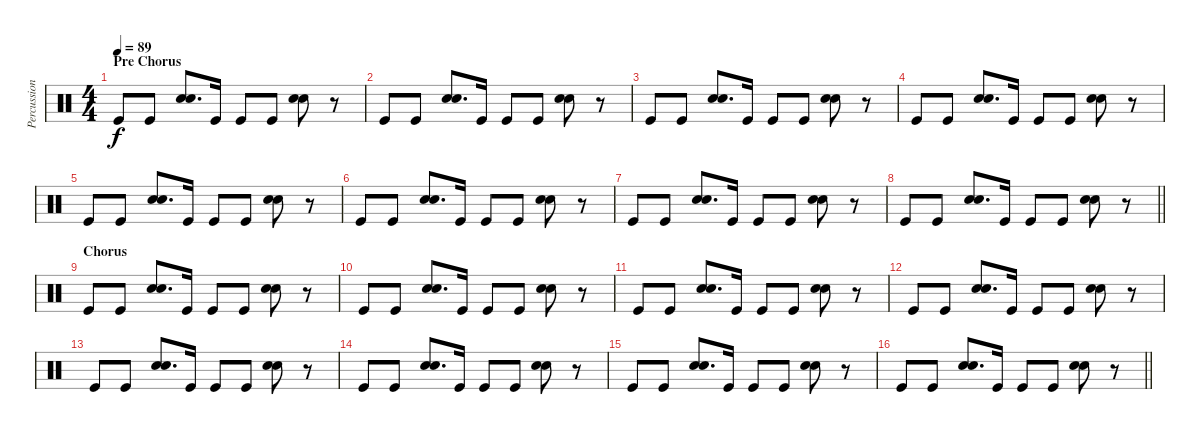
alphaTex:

\track ("Percussion" "Percussion") {instrument percussion}
\staff {score}
\articulation defaults
\ts (4 4)
\section ("" "Pre Chorus")
\tempo 89
\clef neutral
\ks c "Kick (hit)".8{dy f} "Kick (hit)".8
("Electric Snare (hit)" "Hand Clap (hit)").8{d} "Kick (hit)".16 "Kick (hit)".8 "Kick (hit)".8 ("Electric Snare (hit)" "Hand Clap (hit)").8 r.8 |
"Kick (hit)".8 "Kick (hit)".8 ("Electric Snare (hit)" "Hand Clap (hit)").8{d} "Kick (hit)".16 "Kick (hit)".8 "Kick (hit)".8 ("Electric Snare (hit)" "Hand Clap (hit)").8 r.8 |
"Kick (hit)".8 "Kick (hit)".8 ("Electric Snare (hit)" "Hand Clap (hit)").8{d} "Kick (hit)".16 "Kick (hit)".8 "Kick (hit)".8 ("Electric Snare (hit)" "Hand Clap (hit)").8 r.8 |
"Kick (hit)".8 "Kick (hit)".8 ("Electric Snare (hit)" "Hand Clap (hit)").8{d} "Kick (hit)".16 "Kick (hit)".8 "Kick (hit)".8 ("Electric Snare (hit)" "Hand Clap (hit)").8 r.8 |
"Kick (hit)".8 "Kick (hit)".8 ("Electric Snare (hit)" "Hand Clap (hit)").8{d} "Kick (hit)".16 "Kick (hit)".8 "Kick (hit)".8 ("Electric Snare (hit)" "Hand Clap (hit)").8 r.8 |
"Kick (hit)".8 "Kick (hit)".8 ("Electric Snare (hit)" "Hand Clap (hit)").8{d} "Kick (hit)".16 "Kick (hit)".8 "Kick (hit)".8 ("Electric Snare (hit)" "Hand Clap (hit)").8 r.8 |
"Kick (hit)".8 "Kick (hit)".8 ("Electric Snare (hit)" "Hand Clap (hit)").8{d} "Kick (hit)".16 "Kick (hit)".8 "Kick (hit)".8 ("Electric Snare (hit)" "Hand Clap (hit)").8 r.8 |
\barLineRight lightlight "Kick (hit)".8 "Kick (hit)".8
("Electric Snare (hit)" "Hand Clap (hit)").8{d} "Kick (hit)".16 "Kick (hit)".8 "Kick (hit)".8 ("Electric Snare (hit)" "Hand Clap (hit)").8 r.8 |
\section ("" "Chorus")
"Kick (hit)".8 "Kick (hit)".8 ("Electric Snare (hit)" "Hand Clap (hit)").8{d} "Kick (hit)".16 "Kick (hit)".8 "Kick (hit)".8 ("Electric Snare (hit)" "Hand Clap (hit)").8 r.8 |
"Kick (hit)".8 "Kick (hit)".8 ("Electric Snare (hit)" "Hand Clap (hit)").8{d} "Kick (hit)".16 "Kick (hit)".8 "Kick (hit)".8 ("Electric Snare (hit)" "Hand Clap (hit)").8 r.8 |
"Kick (hit)".8 "Kick (hit)".8 ("Electric Snare (hit)" "Hand Clap (hit)").8{d} "Kick (hit)".16 "Kick (hit)".8 "Kick (hit)".8 ("Electric Snare (hit)" "Hand Clap (hit)").8 r.8 |
"Kick (hit)".8 "Kick (hit)".8 ("Electric Snare (hit)" "Hand Clap (hit)").8{d} "Kick (hit)".16 "Kick (hit)".8 "Kick (hit)".8 ("Electric Snare (hit)" "Hand Clap (hit)").8 r.8 |
"Kick (hit)".8 "Kick (hit)".8 ("Electric Snare (hit)" "Hand Clap (hit)").8{d} "Kick (hit)".16 "Kick (hit)".8 "Kick (hit)".8 ("Electric Snare (hit)" "Hand Clap (hit)").8 r.8 |
"Kick (hit)".8 "Kick (hit)".8 ("Electric Snare (hit)" "Hand Clap (hit)").8{d} "Kick (hit)".16 "Kick (hit)".8 "Kick (hit)".8 ("Electric Snare (hit)" "Hand Clap (hit)").8 r.8 |
"Kick (hit)".8 "Kick (hit)".8 ("Electric Snare (hit)" "Hand Clap (hit)").8{d} "Kick (hit)".16 "Kick (hit)".8 "Kick (hit)".8 ("Electric Snare (hit)" "Hand Clap (hit)").8 r.8 |
\barLineRight lightlight "Kick (hit)".8 "Kick (hit)".8
("Electric Snare (hit)" "Hand Clap (hit)").8{d} "Kick (hit)".16 "Kick (hit)".8 "Kick (hit)".8 ("Electric Snare (hit)" "Hand Clap (hit)").8 r.8
